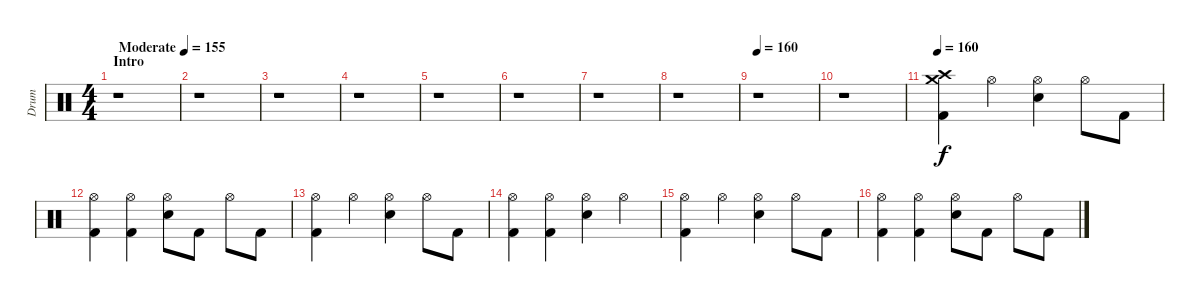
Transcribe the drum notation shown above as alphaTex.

\track ("Drum" "Drum") {instrument percussion}
\staff {score}
\articulation defaults
\ts (4 4)
\section ("" "Intro")
\tempo (155 "Moderate")
\clef neutral
\ks c
r.1{dy f} |
r.1 |
r.1 |
r.1 |
r.1 |
r.1 |
r.1 |
r.1 |
\tempo 160
r.1 |
r.1 |
\tempo 160
("Crash medium (hit)" "Crash high (hit)" "Kick (hit) 2").4{volume 5} "Hi-Hat (open)".4 ("Hi-Hat (open)" "Electric Snare (hit)").4{volume 6} "Hi-Hat (open)".8 "Kick (hit) 2".8 |
("Hi-Hat (open)" "Kick (hit) 2").4{volume 7} ("Hi-Hat (open)" "Kick (hit) 2").4 ("Hi-Hat (open)" "Electric Snare (hit)").8 "Kick (hit) 2".8{volume 8} "Hi-Hat (open)".8 "Kick (hit) 2".8 |
("Hi-Hat (open)" "Kick (hit) 2").4 "Hi-Hat (open)".4 ("Hi-Hat (open)" "Electric Snare (hit)").4{volume 9} "Hi-Hat (open)".8 "Kick (hit) 2".8 |
("Hi-Hat (open)" "Kick (hit) 2").4 ("Hi-Hat (open)" "Kick (hit) 2").4 ("Hi-Hat (open)" "Electric Snare (hit)").4{volume 10} "Hi-Hat (open)".4 |
("Hi-Hat (open)" "Kick (hit) 2").4 "Hi-Hat (open)".4 ("Hi-Hat (open)" "Electric Snare (hit)").4{volume 11} "Hi-Hat (open)".8 "Kick (hit) 2".8 |
("Hi-Hat (open)" "Kick (hit) 2").4 ("Hi-Hat (open)" "Kick (hit) 2").4 ("Hi-Hat (open)" "Electric Snare (hit)").8{volume 12} "Kick (hit) 2".8 "Hi-Hat (open)".8 "Kick (hit) 2".8
